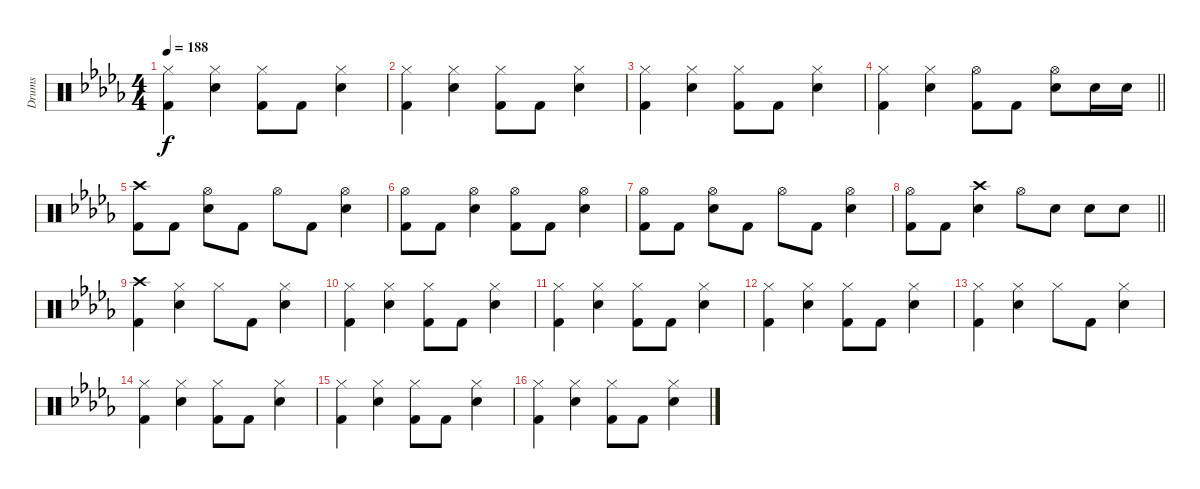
\track ("Drums" "Drums") {instrument percussion}
\staff {score}
\articulation defaults
\ts (4 4)
\tempo 188
\clef neutral
\ks bbminor
("Hi-Hat (closed)" "Kick (hit) 2").4{dy f} ("Hi-Hat (closed)" "Electric Snare (hit)").4 ("Hi-Hat (closed)" "Kick (hit) 2").8 "Kick (hit) 2".8 ("Hi-Hat (closed)" "Electric Snare (hit)").4 |
("Hi-Hat (closed)" "Kick (hit) 2").4 ("Hi-Hat (closed)" "Electric Snare (hit)").4 ("Hi-Hat (closed)" "Kick (hit) 2").8 "Kick (hit) 2".8 ("Hi-Hat (closed)" "Electric Snare (hit)").4 |
("Hi-Hat (closed)" "Kick (hit) 2").4 ("Hi-Hat (closed)" "Electric Snare (hit)").4 ("Hi-Hat (closed)" "Kick (hit) 2").8 "Kick (hit) 2".8 ("Hi-Hat (closed)" "Electric Snare (hit)").4 |
\barLineRight lightlight
("Hi-Hat (closed)" "Kick (hit) 2").4 ("Hi-Hat (closed)" "Electric Snare (hit)").4 ("Hi-Hat (open)" "Kick (hit) 2").8 "Kick (hit) 2".8 ("Hi-Hat (open)" "Electric Snare (hit)").8 "Electric Snare (hit)".16 "Electric Snare (hit)".16 |
("Crash high (hit)" "Kick (hit) 2").8 "Kick (hit) 2".8 ("Hi-Hat (open)" "Electric Snare (hit)").8 "Kick (hit) 2".8 "Hi-Hat (open)".8 "Kick (hit) 2".8 ("Hi-Hat (open)" "Electric Snare (hit)").4 |
("Hi-Hat (open)" "Kick (hit) 2").8 "Kick (hit) 2".8 ("Hi-Hat (open)" "Electric Snare (hit)").4 ("Hi-Hat (open)" "Kick (hit) 2").8 "Kick (hit) 2".8 ("Hi-Hat (open)" "Electric Snare (hit)").4 |
("Hi-Hat (open)" "Kick (hit) 2").8 "Kick (hit) 2".8 ("Hi-Hat (open)" "Electric Snare (hit)").8 "Kick (hit) 2".8 "Hi-Hat (open)".8 "Kick (hit) 2".8 ("Hi-Hat (open)" "Electric Snare (hit)").4 |
\barLineRight lightlight
("Hi-Hat (open)" "Kick (hit) 2").8 "Kick (hit) 2".8 ("Crash high (hit)" "Electric Snare (hit)").4 "Hi-Hat (open)".8 "Electric Snare (hit)".8 "Electric Snare (hit)".8 "Electric Snare (hit)".8 |
("Crash high (hit)" "Kick (hit) 2").4 ("Hi-Hat (closed)" "Electric Snare (hit)").4 "Hi-Hat (closed)".8 "Kick (hit) 2".8 ("Hi-Hat (closed)" "Electric Snare (hit)").4 |
("Hi-Hat (closed)" "Kick (hit) 2").4 ("Hi-Hat (closed)" "Electric Snare (hit)").4 ("Hi-Hat (closed)" "Kick (hit) 2").8 "Kick (hit) 2".8 ("Hi-Hat (closed)" "Electric Snare (hit)").4 |
("Hi-Hat (closed)" "Kick (hit) 2").4 ("Hi-Hat (closed)" "Electric Snare (hit)").4 ("Hi-Hat (closed)" "Kick (hit) 2").8 "Kick (hit) 2".8 ("Hi-Hat (closed)" "Electric Snare (hit)").4 |
("Hi-Hat (closed)" "Kick (hit) 2").4 ("Hi-Hat (closed)" "Electric Snare (hit)").4 ("Hi-Hat (closed)" "Kick (hit) 2").8 "Kick (hit) 2".8 ("Hi-Hat (closed)" "Electric Snare (hit)").4 |
("Hi-Hat (closed)" "Kick (hit) 2").4 ("Hi-Hat (closed)" "Electric Snare (hit)").4 "Hi-Hat (closed)".8 "Kick (hit) 2".8 ("Hi-Hat (closed)" "Electric Snare (hit)").4 |
("Hi-Hat (closed)" "Kick (hit) 2").4 ("Hi-Hat (closed)" "Electric Snare (hit)").4 ("Hi-Hat (closed)" "Kick (hit) 2").8 "Kick (hit) 2".8 ("Hi-Hat (closed)" "Electric Snare (hit)").4 |
("Hi-Hat (closed)" "Kick (hit) 2").4 ("Hi-Hat (closed)" "Electric Snare (hit)").4 ("Hi-Hat (closed)" "Kick (hit) 2").8 "Kick (hit) 2".8 ("Hi-Hat (closed)" "Electric Snare (hit)").4 |
("Hi-Hat (closed)" "Kick (hit) 2").4 ("Hi-Hat (closed)" "Electric Snare (hit)").4 ("Hi-Hat (closed)" "Kick (hit) 2").8 "Kick (hit) 2".8 ("Hi-Hat (closed)" "Electric Snare (hit)").4
